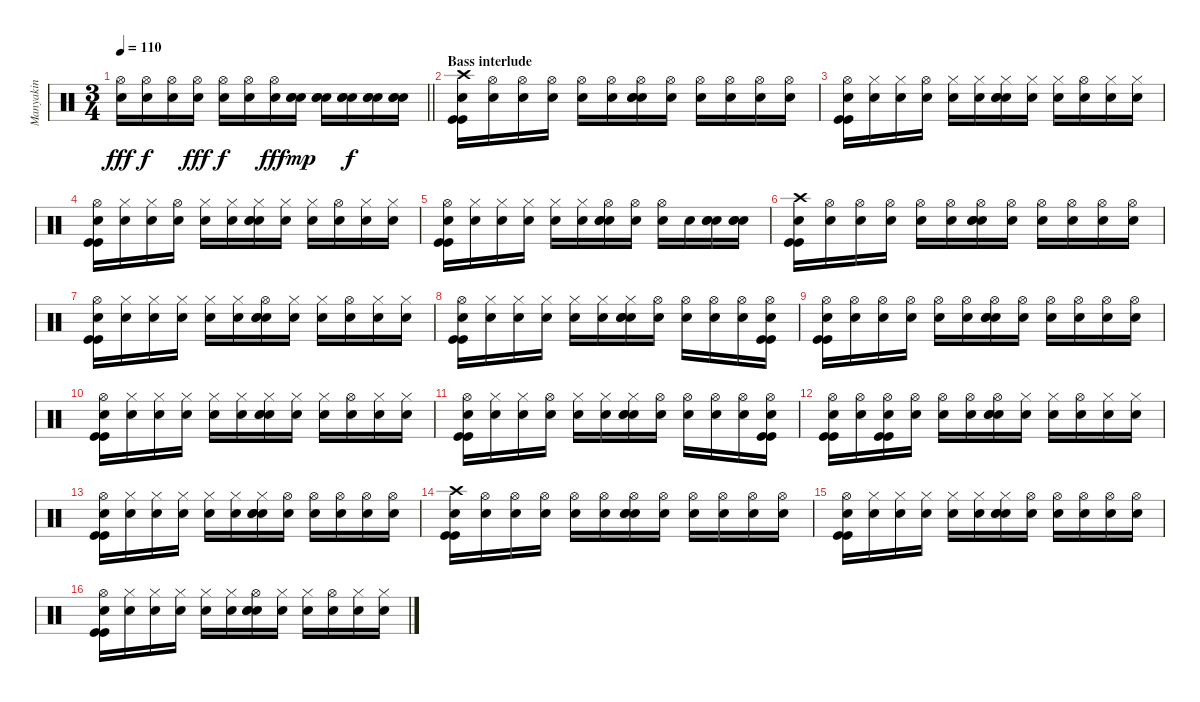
\track ("Manyakin" "Manyakin") {instrument percussion}
\staff {score}
\articulation defaults
\ts (3 4)
\tempo 110
\clef neutral
\barLineRight lightlight
\ks c
("Hi-Hat (open)" "Snare (hit)"{x}).16{dy fff} ("Hi-Hat (open)" "Snare (hit)"{x}).16{dy f} ("Hi-Hat (open)" "Snare (hit)"{x}).16 ("Hi-Hat (open)" "Snare (hit)"{x}).16{dy fff} ("Hi-Hat (open)" "Snare (hit)"{x}).16{dy f} ("Hi-Hat (open)" "Snare (hit)"{x}).16 ("Hi-Hat (open)" "Snare (hit)"{x}).16{dy fff} ("Electric Snare (hit)" "Electric Snare (hit)" "Snare (hit)"{x}).16{dy mp} ("Electric Snare (hit)" "Electric Snare (hit)" "Snare (hit)"{x}).16 ("Electric Snare (hit)" "Electric Snare (hit)" "Snare (hit)"{x}).16{dy f} ("Electric Snare (hit)" "Electric Snare (hit)" "Snare (hit)"{x}).16 ("Electric Snare (hit)" "Electric Snare (hit)" "Snare (hit)"{x}).16 |
\section ("" "Bass interlude")
("Crash high (hit)" "Kick (hit)" "Kick (hit)" "Snare (hit)"{x}).16 ("Hi-Hat (open)" "Snare (hit)"{x}).16 ("Hi-Hat (open)" "Snare (hit)"{x}).16 ("Hi-Hat (open)" "Snare (hit)"{x}).16 ("Hi-Hat (open)" "Snare (hit)"{x}).16 ("Hi-Hat (open)" "Snare (hit)"{x}).16 ("Hi-Hat (open)" "Electric Snare (hit)" "Electric Snare (hit)" "Snare (hit)"{x}).16 ("Hi-Hat (open)" "Snare (hit)"{x}).16 ("Hi-Hat (open)" "Snare (hit)"{x}).16 ("Hi-Hat (open)" "Snare (hit)"{x}).16 ("Hi-Hat (open)" "Snare (hit)"{x}).16 ("Hi-Hat (open)" "Snare (hit)"{x}).16 |
("Hi-Hat (open)" "Kick (hit)" "Kick (hit)" "Snare (hit)"{x}).16 ("Hi-Hat (closed)" "Snare (hit)"{x}).16 ("Hi-Hat (closed)" "Snare (hit)"{x}).16 ("Hi-Hat (open)" "Snare (hit)"{x}).16 ("Hi-Hat (closed)" "Snare (hit)"{x}).16 ("Hi-Hat (closed)" "Snare (hit)"{x}).16 ("Hi-Hat (closed)" "Electric Snare (hit)" "Electric Snare (hit)" "Snare (hit)"{x}).16 ("Hi-Hat (closed)" "Snare (hit)"{x}).16 ("Hi-Hat (closed)" "Snare (hit)"{x}).16 ("Hi-Hat (open)" "Snare (hit)"{x}).16 ("Hi-Hat (closed)" "Snare (hit)"{x}).16 ("Hi-Hat (closed)" "Snare (hit)"{x}).16 |
("Hi-Hat (open)" "Kick (hit)" "Kick (hit)" "Snare (hit)"{x}).16 ("Hi-Hat (closed)" "Snare (hit)"{x}).16 ("Hi-Hat (closed)" "Snare (hit)"{x}).16 ("Hi-Hat (open)" "Snare (hit)"{x}).16 ("Hi-Hat (closed)" "Snare (hit)"{x}).16 ("Hi-Hat (closed)" "Snare (hit)"{x}).16 ("Hi-Hat (closed)" "Electric Snare (hit)" "Electric Snare (hit)" "Snare (hit)"{x}).16 ("Hi-Hat (closed)" "Snare (hit)"{x}).16 ("Hi-Hat (closed)" "Snare (hit)"{x}).16 ("Hi-Hat (open)" "Snare (hit)"{x}).16 ("Hi-Hat (closed)" "Snare (hit)"{x}).16 ("Hi-Hat (closed)" "Snare (hit)"{x}).16 |
("Hi-Hat (open)" "Kick (hit)" "Kick (hit)" "Snare (hit)"{x}).16 ("Hi-Hat (closed)" "Snare (hit)"{x}).16 ("Hi-Hat (closed)" "Snare (hit)"{x}).16 ("Hi-Hat (closed)" "Snare (hit)"{x}).16 ("Hi-Hat (closed)" "Snare (hit)"{x}).16 ("Hi-Hat (closed)" "Snare (hit)"{x}).16 ("Hi-Hat (open)" "Electric Snare (hit)" "Electric Snare (hit)" "Snare (hit)"{x}).16 ("Hi-Hat (open)" "Snare (hit)"{x}).16 ("Hi-Hat (open)" "Snare (hit)"{x}).16 "Snare (hit)"{x}.16 ("Electric Snare (hit)" "Electric Snare (hit)" "Snare (hit)"{x}).16 ("Electric Snare (hit)" "Electric Snare (hit)" "Snare (hit)"{x}).16 |
("Crash high (hit)" "Kick (hit)" "Kick (hit)" "Snare (hit)"{x}).16 ("Hi-Hat (open)" "Snare (hit)"{x}).16 ("Hi-Hat (open)" "Snare (hit)"{x}).16 ("Hi-Hat (open)" "Snare (hit)"{x}).16 ("Hi-Hat (open)" "Snare (hit)"{x}).16 ("Hi-Hat (open)" "Snare (hit)"{x}).16 ("Hi-Hat (open)" "Electric Snare (hit)" "Electric Snare (hit)" "Snare (hit)"{x}).16 ("Hi-Hat (open)" "Snare (hit)"{x}).16 ("Hi-Hat (open)" "Snare (hit)"{x}).16 ("Hi-Hat (open)" "Snare (hit)"{x}).16 ("Hi-Hat (open)" "Snare (hit)"{x}).16 ("Hi-Hat (open)" "Snare (hit)"{x}).16 |
("Hi-Hat (open)" "Kick (hit)" "Kick (hit)" "Snare (hit)"{x}).16 ("Hi-Hat (closed)" "Snare (hit)"{x}).16 ("Hi-Hat (closed)" "Snare (hit)"{x}).16 ("Hi-Hat (closed)" "Snare (hit)"{x}).16 ("Hi-Hat (closed)" "Snare (hit)"{x}).16 ("Hi-Hat (closed)" "Snare (hit)"{x}).16 ("Hi-Hat (open)" "Electric Snare (hit)" "Electric Snare (hit)" "Snare (hit)"{x}).16 ("Hi-Hat (closed)" "Snare (hit)"{x}).16 ("Hi-Hat (closed)" "Snare (hit)"{x}).16 ("Hi-Hat (open)" "Snare (hit)"{x}).16 ("Hi-Hat (closed)" "Snare (hit)"{x}).16 ("Hi-Hat (closed)" "Snare (hit)"{x}).16 |
("Hi-Hat (open)" "Kick (hit)" "Kick (hit)" "Snare (hit)"{x}).16 ("Hi-Hat (closed)" "Snare (hit)"{x}).16 ("Hi-Hat (closed)" "Snare (hit)"{x}).16 ("Hi-Hat (closed)" "Snare (hit)"{x}).16 ("Hi-Hat (closed)" "Snare (hit)"{x}).16 ("Hi-Hat (closed)" "Snare (hit)"{x}).16 ("Hi-Hat (closed)" "Electric Snare (hit)" "Electric Snare (hit)" "Snare (hit)"{x}).16 ("Hi-Hat (open)" "Snare (hit)"{x}).16 ("Hi-Hat (open)" "Snare (hit)"{x}).16 ("Hi-Hat (open)" "Snare (hit)"{x}).16 ("Hi-Hat (open)" "Snare (hit)"{x}).16 ("Hi-Hat (open)" "Kick (hit)" "Kick (hit)" "Snare (hit)"{x}).16 |
("Hi-Hat (open)" "Kick (hit)" "Kick (hit)" "Snare (hit)"{x}).16 ("Hi-Hat (open)" "Snare (hit)"{x}).16 ("Hi-Hat (open)" "Snare (hit)"{x}).16 ("Hi-Hat (open)" "Snare (hit)"{x}).16 ("Hi-Hat (open)" "Snare (hit)"{x}).16 ("Hi-Hat (open)" "Snare (hit)"{x}).16 ("Hi-Hat (open)" "Electric Snare (hit)" "Electric Snare (hit)" "Snare (hit)"{x}).16 ("Hi-Hat (open)" "Snare (hit)"{x}).16 ("Hi-Hat (open)" "Snare (hit)"{x}).16 ("Hi-Hat (open)" "Snare (hit)"{x}).16 ("Hi-Hat (open)" "Snare (hit)"{x}).16 ("Hi-Hat (open)" "Snare (hit)"{x}).16 |
("Hi-Hat (open)" "Kick (hit)" "Kick (hit)" "Snare (hit)"{x}).16 ("Hi-Hat (closed)" "Snare (hit)"{x}).16 ("Hi-Hat (closed)" "Snare (hit)"{x}).16 ("Hi-Hat (closed)" "Snare (hit)"{x}).16 ("Hi-Hat (closed)" "Snare (hit)"{x}).16 ("Hi-Hat (closed)" "Snare (hit)"{x}).16 ("Hi-Hat (closed)" "Electric Snare (hit)" "Electric Snare (hit)" "Snare (hit)"{x}).16 ("Hi-Hat (closed)" "Snare (hit)"{x}).16 ("Hi-Hat (closed)" "Snare (hit)"{x}).16 ("Hi-Hat (open)" "Snare (hit)"{x}).16 ("Hi-Hat (closed)" "Snare (hit)"{x}).16 ("Hi-Hat (closed)" "Snare (hit)"{x}).16 |
("Hi-Hat (open)" "Kick (hit)" "Kick (hit)" "Snare (hit)"{x}).16 ("Hi-Hat (closed)" "Snare (hit)"{x}).16 ("Hi-Hat (closed)" "Snare (hit)"{x}).16 ("Hi-Hat (open)" "Snare (hit)"{x}).16 ("Hi-Hat (closed)" "Snare (hit)"{x}).16 ("Hi-Hat (closed)" "Snare (hit)"{x}).16 ("Hi-Hat (closed)" "Electric Snare (hit)" "Electric Snare (hit)" "Snare (hit)"{x}).16 ("Hi-Hat (open)" "Snare (hit)"{x}).16 ("Hi-Hat (open)" "Snare (hit)"{x}).16 ("Hi-Hat (open)" "Snare (hit)"{x}).16 ("Hi-Hat (open)" "Snare (hit)"{x}).16 ("Hi-Hat (open)" "Kick (hit)" "Kick (hit)" "Snare (hit)"{x}).16 |
("Hi-Hat (open)" "Kick (hit)" "Kick (hit)" "Snare (hit)"{x}).16 ("Hi-Hat (open)" "Snare (hit)"{x}).16 ("Hi-Hat (open)" "Kick (hit)" "Kick (hit)" "Snare (hit)"{x}).16 ("Hi-Hat (open)" "Snare (hit)"{x}).16 ("Hi-Hat (open)" "Snare (hit)"{x}).16 ("Hi-Hat (open)" "Snare (hit)"{x}).16 ("Hi-Hat (open)" "Electric Snare (hit)" "Electric Snare (hit)" "Snare (hit)"{x}).16 ("Hi-Hat (closed)" "Snare (hit)"{x}).16 ("Hi-Hat (closed)" "Snare (hit)"{x}).16 ("Hi-Hat (open)" "Snare (hit)"{x}).16 ("Hi-Hat (closed)" "Snare (hit)"{x}).16 ("Hi-Hat (closed)" "Snare (hit)"{x}).16 |
("Hi-Hat (open)" "Kick (hit)" "Kick (hit)" "Snare (hit)"{x}).16 ("Hi-Hat (closed)" "Snare (hit)"{x}).16 ("Hi-Hat (closed)" "Snare (hit)"{x}).16 ("Hi-Hat (closed)" "Snare (hit)"{x}).16 ("Hi-Hat (closed)" "Snare (hit)"{x}).16 ("Hi-Hat (closed)" "Snare (hit)"{x}).16 ("Hi-Hat (closed)" "Electric Snare (hit)" "Electric Snare (hit)" "Snare (hit)"{x}).16 ("Hi-Hat (open)" "Snare (hit)"{x}).16 ("Hi-Hat (open)" "Snare (hit)"{x}).16 ("Hi-Hat (open)" "Snare (hit)"{x}).16 ("Hi-Hat (open)" "Snare (hit)"{x}).16 ("Hi-Hat (open)" "Snare (hit)"{x}).16 |
("Crash high (hit)" "Kick (hit)" "Kick (hit)" "Snare (hit)"{x}).16 ("Hi-Hat (open)" "Snare (hit)"{x}).16 ("Hi-Hat (open)" "Snare (hit)"{x}).16 ("Hi-Hat (open)" "Snare (hit)"{x}).16 ("Hi-Hat (open)" "Snare (hit)"{x}).16 ("Hi-Hat (open)" "Snare (hit)"{x}).16 ("Hi-Hat (open)" "Electric Snare (hit)" "Electric Snare (hit)" "Snare (hit)"{x}).16 ("Hi-Hat (open)" "Snare (hit)"{x}).16 ("Hi-Hat (open)" "Snare (hit)"{x}).16 ("Hi-Hat (open)" "Snare (hit)"{x}).16 ("Hi-Hat (open)" "Snare (hit)"{x}).16 ("Hi-Hat (open)" "Snare (hit)"{x}).16 |
("Hi-Hat (open)" "Kick (hit)" "Kick (hit)" "Snare (hit)"{x}).16 ("Hi-Hat (closed)" "Snare (hit)"{x}).16 ("Hi-Hat (closed)" "Snare (hit)"{x}).16 ("Hi-Hat (closed)" "Snare (hit)"{x}).16 ("Hi-Hat (closed)" "Snare (hit)"{x}).16 ("Hi-Hat (closed)" "Snare (hit)"{x}).16 ("Hi-Hat (closed)" "Electric Snare (hit)" "Electric Snare (hit)" "Snare (hit)"{x}).16 ("Hi-Hat (open)" "Snare (hit)"{x}).16 ("Hi-Hat (open)" "Snare (hit)"{x}).16 ("Hi-Hat (open)" "Snare (hit)"{x}).16 ("Hi-Hat (open)" "Snare (hit)"{x}).16 ("Hi-Hat (open)" "Snare (hit)"{x}).16 |
("Hi-Hat (open)" "Kick (hit)" "Kick (hit)" "Snare (hit)"{x}).16 ("Hi-Hat (closed)" "Snare (hit)"{x}).16 ("Hi-Hat (closed)" "Snare (hit)"{x}).16 ("Hi-Hat (closed)" "Snare (hit)"{x}).16 ("Hi-Hat (closed)" "Snare (hit)"{x}).16 ("Hi-Hat (closed)" "Snare (hit)"{x}).16 ("Hi-Hat (open)" "Electric Snare (hit)" "Electric Snare (hit)" "Snare (hit)"{x}).16 ("Hi-Hat (closed)" "Snare (hit)"{x}).16 ("Hi-Hat (closed)" "Snare (hit)"{x}).16 ("Hi-Hat (open)" "Snare (hit)"{x}).16 ("Hi-Hat (closed)" "Snare (hit)"{x}).16 ("Hi-Hat (closed)" "Snare (hit)"{x}).16
